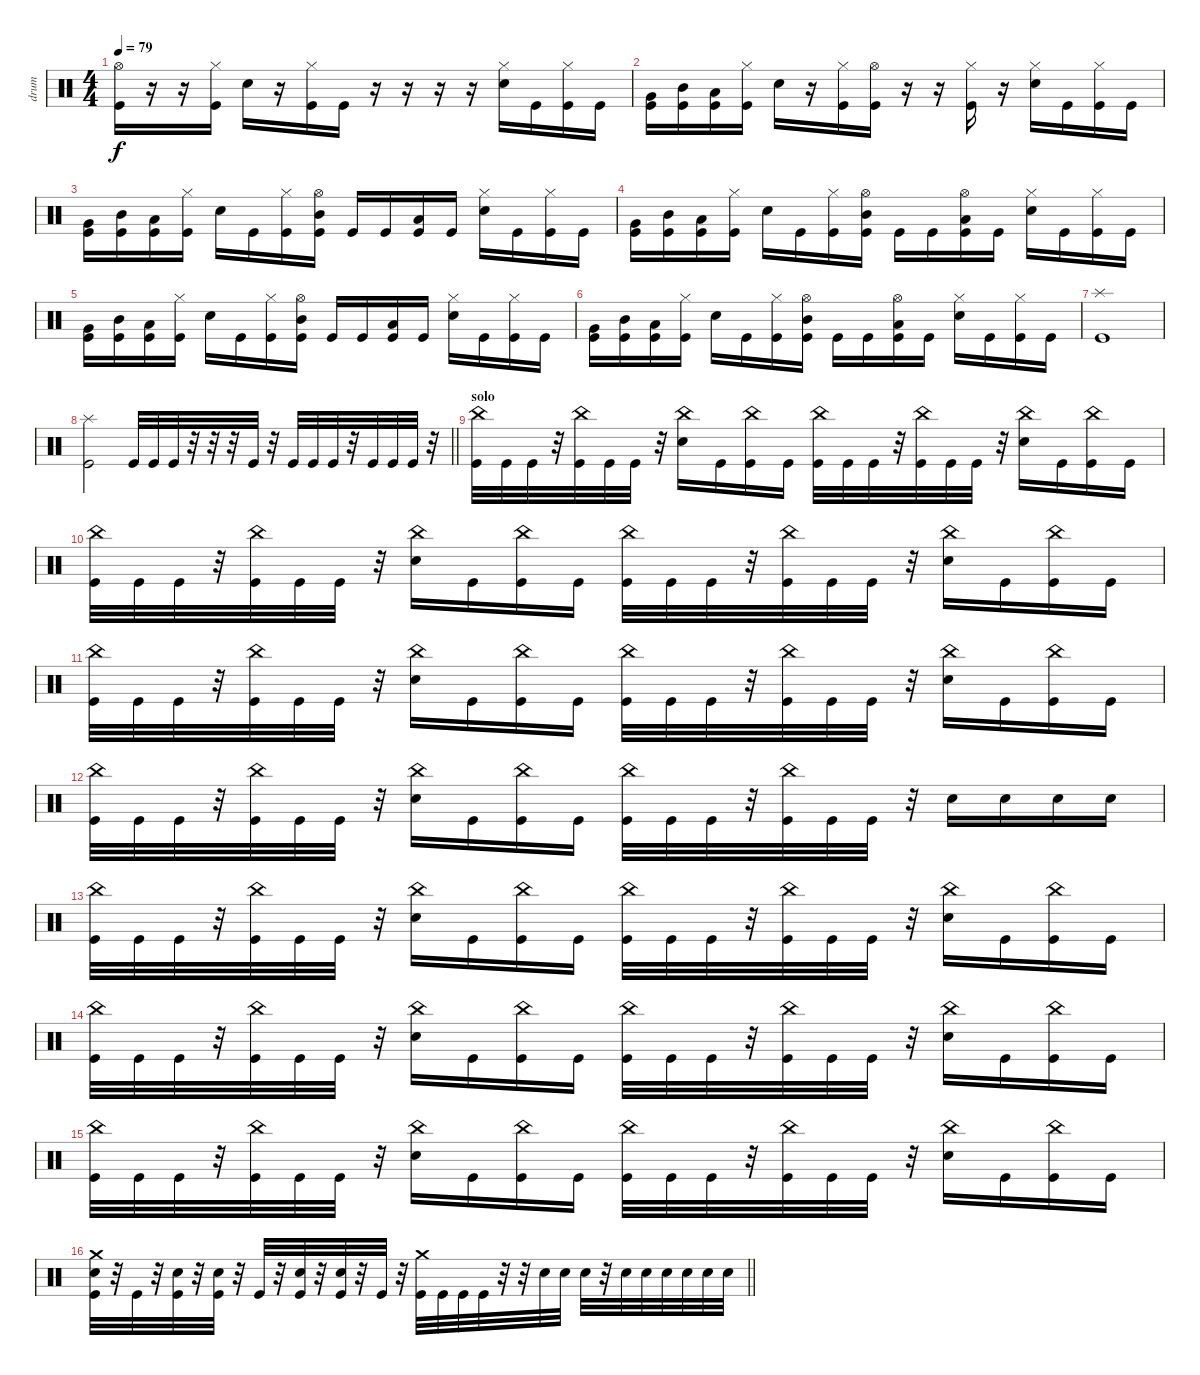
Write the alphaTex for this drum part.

\track ("drum" "drum") {instrument percussion}
\staff {score}
\articulation defaults
\ts (4 4)
\tempo 79
\clef neutral
\ks c
("Hi-Hat (open)" "Kick (hit)").16{dy f} r.16 r.16 ("Hi-Hat (closed)" "Kick (hit)").16 "Snare (hit) 2".16 r.16 ("Hi-Hat (closed)" "Kick (hit)").16 "Kick (hit)".16 r.16 r.16 r.16 r.16 ("Hi-Hat (closed)" "Snare (hit) 2").16 "Kick (hit)".16 ("Hi-Hat (closed)" "Kick (hit)").16 "Kick (hit)".16 |
("Kick (hit)" "Very Low Tom (hit)").16 ("Kick (hit)" "Mid Tom (hit)").16 ("Kick (hit)" "Low Tom (hit)").16 ("Hi-Hat (closed)" "Kick (hit)").16 "Snare (hit) 2".16 r.16 ("Hi-Hat (closed)" "Kick (hit)").16 ("Hi-Hat (open)" "Kick (hit)").16 r.16 r.16 ("Hi-Hat (closed)" "Kick (hit)").16 r.16 ("Hi-Hat (closed)" "Snare (hit) 2").16 "Kick (hit)".16 ("Hi-Hat (closed)" "Kick (hit)").16 "Kick (hit)".16 |
("Kick (hit)" "Very Low Tom (hit)").16 ("Kick (hit)" "Mid Tom (hit)").16 ("Kick (hit)" "Low Tom (hit)").16 ("Hi-Hat (closed)" "Kick (hit)").16 "Snare (hit) 2".16 "Kick (hit)".16 ("Hi-Hat (closed)" "Kick (hit)").16 ("Hi-Hat (open)" "Kick (hit)" "Mid Tom (hit)").16 "Kick (hit)".16 "Kick (hit)".16 ("Kick (hit)" "Low Tom (hit)").16 "Kick (hit)".16 ("Hi-Hat (closed)" "Snare (hit) 2").16 "Kick (hit)".16 ("Hi-Hat (closed)" "Kick (hit)").16 "Kick (hit)".16 |
("Kick (hit)" "Very Low Tom (hit)").16 ("Kick (hit)" "Mid Tom (hit)").16 ("Kick (hit)" "Low Tom (hit)").16 ("Hi-Hat (closed)" "Kick (hit)").16 "Snare (hit) 2".16 "Kick (hit)".16 ("Hi-Hat (closed)" "Kick (hit)").16 ("Hi-Hat (open)" "Kick (hit)" "Mid Tom (hit)").16 "Kick (hit)".16 "Kick (hit)".16 ("Hi-Hat (open)" "Kick (hit)" "Low Tom (hit)").16 "Kick (hit)".16 ("Hi-Hat (closed)" "Snare (hit) 2").16 "Kick (hit)".16 ("Hi-Hat (closed)" "Kick (hit)").16 "Kick (hit)".16 |
("Kick (hit)" "Very Low Tom (hit)").16 ("Kick (hit)" "Mid Tom (hit)").16 ("Kick (hit)" "Low Tom (hit)").16 ("Hi-Hat (closed)" "Kick (hit)").16 "Snare (hit) 2".16 "Kick (hit)".16 ("Hi-Hat (closed)" "Kick (hit)").16 ("Hi-Hat (open)" "Kick (hit)" "Mid Tom (hit)").16 "Kick (hit)".16 "Kick (hit)".16 ("Kick (hit)" "Low Tom (hit)").16 "Kick (hit)".16 ("Hi-Hat (closed)" "Snare (hit) 2").16 "Kick (hit)".16 ("Hi-Hat (closed)" "Kick (hit)").16 "Kick (hit)".16 |
("Kick (hit)" "Very Low Tom (hit)").16 ("Kick (hit)" "Mid Tom (hit)").16 ("Kick (hit)" "Low Tom (hit)").16 ("Hi-Hat (closed)" "Kick (hit)").16 "Snare (hit) 2".16 "Kick (hit)".16 ("Hi-Hat (closed)" "Kick (hit)").16 ("Hi-Hat (open)" "Kick (hit)" "Mid Tom (hit)").16 "Kick (hit)".16 "Kick (hit)".16 ("Hi-Hat (open)" "Kick (hit)" "Low Tom (hit)").16 "Kick (hit)".16 ("Hi-Hat (closed)" "Snare (hit) 2").16 "Kick (hit)".16 ("Hi-Hat (closed)" "Kick (hit)").16 "Kick (hit)".16 |
("Splash (hit)" "Kick (hit)").1 |
\barLineRight lightlight
("Splash (hit)" "Kick (hit)").2 "Kick (hit)".32 "Kick (hit)".32 "Kick (hit)".32 r.32 r.32 r.32 "Kick (hit)".32 r.32 "Kick (hit)".32 "Kick (hit)".32 "Kick (hit)".32 r.32 "Kick (hit)".32 "Kick (hit)".32 "Kick (hit)".32 r.32 |
\section ("" "solo")
("China (hit)" "Kick (hit)").32 "Kick (hit)".32 "Kick (hit)".32 r.32 ("China (hit)" "Kick (hit)").32 "Kick (hit)".32 "Kick (hit)".32 r.32 ("China (hit)" "Snare (hit) 2").16 "Kick (hit)".16 ("China (hit)" "Kick (hit)").16 "Kick (hit)".16 ("China (hit)" "Kick (hit)").32 "Kick (hit)".32 "Kick (hit)".32 r.32 ("China (hit)" "Kick (hit)").32 "Kick (hit)".32 "Kick (hit)".32 r.32 ("China (hit)" "Snare (hit) 2").16 "Kick (hit)".16 ("China (hit)" "Kick (hit)").16 "Kick (hit)".16 |
("China (hit)" "Kick (hit)").32 "Kick (hit)".32 "Kick (hit)".32 r.32 ("China (hit)" "Kick (hit)").32 "Kick (hit)".32 "Kick (hit)".32 r.32 ("China (hit)" "Snare (hit) 2").16 "Kick (hit)".16 ("China (hit)" "Kick (hit)").16 "Kick (hit)".16 ("China (hit)" "Kick (hit)").32 "Kick (hit)".32 "Kick (hit)".32 r.32 ("China (hit)" "Kick (hit)").32 "Kick (hit)".32 "Kick (hit)".32 r.32 ("China (hit)" "Snare (hit) 2").16 "Kick (hit)".16 ("China (hit)" "Kick (hit)").16 "Kick (hit)".16 |
("China (hit)" "Kick (hit)").32 "Kick (hit)".32 "Kick (hit)".32 r.32 ("China (hit)" "Kick (hit)").32 "Kick (hit)".32 "Kick (hit)".32 r.32 ("China (hit)" "Snare (hit) 2").16 "Kick (hit)".16 ("China (hit)" "Kick (hit)").16 "Kick (hit)".16 ("China (hit)" "Kick (hit)").32 "Kick (hit)".32 "Kick (hit)".32 r.32 ("China (hit)" "Kick (hit)").32 "Kick (hit)".32 "Kick (hit)".32 r.32 ("China (hit)" "Snare (hit) 2").16 "Kick (hit)".16 ("China (hit)" "Kick (hit)").16 "Kick (hit)".16 |
("China (hit)" "Kick (hit)").32 "Kick (hit)".32 "Kick (hit)".32 r.32 ("China (hit)" "Kick (hit)").32 "Kick (hit)".32 "Kick (hit)".32 r.32 ("China (hit)" "Snare (hit) 2").16 "Kick (hit)".16 ("China (hit)" "Kick (hit)").16 "Kick (hit)".16 ("China (hit)" "Kick (hit)").32 "Kick (hit)".32 "Kick (hit)".32 r.32 ("China (hit)" "Kick (hit)").32 "Kick (hit)".32 "Kick (hit)".32 r.32 "Snare (hit) 2".16 "Snare (hit) 2".16 "Snare (hit) 2".16 "Snare (hit) 2".16 |
("China (hit)" "Kick (hit)").32 "Kick (hit)".32 "Kick (hit)".32 r.32 ("China (hit)" "Kick (hit)").32 "Kick (hit)".32 "Kick (hit)".32 r.32 ("China (hit)" "Snare (hit) 2").16 "Kick (hit)".16 ("China (hit)" "Kick (hit)").16 "Kick (hit)".16 ("China (hit)" "Kick (hit)").32 "Kick (hit)".32 "Kick (hit)".32 r.32 ("China (hit)" "Kick (hit)").32 "Kick (hit)".32 "Kick (hit)".32 r.32 ("China (hit)" "Snare (hit) 2").16 "Kick (hit)".16 ("China (hit)" "Kick (hit)").16 "Kick (hit)".16 |
("China (hit)" "Kick (hit)").32 "Kick (hit)".32 "Kick (hit)".32 r.32 ("China (hit)" "Kick (hit)").32 "Kick (hit)".32 "Kick (hit)".32 r.32 ("China (hit)" "Snare (hit) 2").16 "Kick (hit)".16 ("China (hit)" "Kick (hit)").16 "Kick (hit)".16 ("China (hit)" "Kick (hit)").32 "Kick (hit)".32 "Kick (hit)".32 r.32 ("China (hit)" "Kick (hit)").32 "Kick (hit)".32 "Kick (hit)".32 r.32 ("China (hit)" "Snare (hit) 2").16 "Kick (hit)".16 ("China (hit)" "Kick (hit)").16 "Kick (hit)".16 |
("China (hit)" "Kick (hit)").32 "Kick (hit)".32 "Kick (hit)".32 r.32 ("China (hit)" "Kick (hit)").32 "Kick (hit)".32 "Kick (hit)".32 r.32 ("China (hit)" "Snare (hit) 2").16 "Kick (hit)".16 ("China (hit)" "Kick (hit)").16 "Kick (hit)".16 ("China (hit)" "Kick (hit)").32 "Kick (hit)".32 "Kick (hit)".32 r.32 ("China (hit)" "Kick (hit)").32 "Kick (hit)".32 "Kick (hit)".32 r.32 ("China (hit)" "Snare (hit) 2").16 "Kick (hit)".16 ("China (hit)" "Kick (hit)").16 "Kick (hit)".16 |
\barLineRight lightlight
("Crash medium (hit)" "Snare (hit) 2" "Kick (hit)").32 r.32 "Kick (hit)".32 r.32 ("Kick (hit)" "Snare (hit) 2").32 r.32 ("Kick (hit)" "Snare (hit) 2").32 r.32 "Kick (hit)".32 r.32 ("Kick (hit)" "Snare (hit) 2").32 r.32 ("Kick (hit)" "Snare (hit) 2").32 r.32 "Kick (hit)".32 r.32 ("Crash medium (hit)" "Kick (hit)").32 "Kick (hit)".32 "Kick (hit)".32 "Kick (hit)".32 r.32 r.32 "Snare (hit) 2".32 "Snare (hit) 2".32 "Snare (hit) 2".32 r.32 "Snare (hit) 2".32 "Snare (hit) 2".32 "Snare (hit) 2".32 "Snare (hit) 2".32 "Snare (hit) 2".32 "Snare (hit) 2".32
